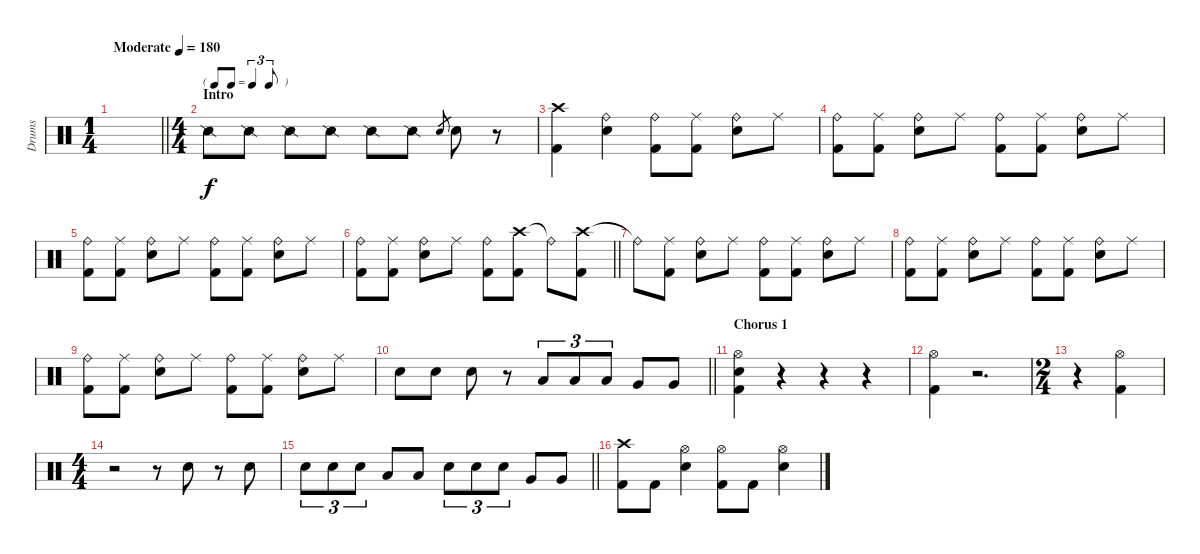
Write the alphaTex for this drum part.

\track ("Drums" "Drums") {instrument percussion}
\staff {score}
\articulation defaults
\ts (1 4)
\tempo (180 "Moderate")
\clef neutral
\barLineRight lightlight
\ks c
|
\ts (4 4)
\tf triplet8th
\section ("" "Intro")
"Snare (side stick) 2".8 "Snare (side stick) 2".8 "Snare (side stick) 2".8 "Snare (side stick) 2".8 "Snare (side stick) 2".8 "Snare (side stick) 2".8 "Snare (hit) 2".8{gr} "Snare (hit) 2".8 r.8 |
("Crash high (hit)" "Kick (hit) 2").4 ("Ride (bell)" "Snare (hit) 2").4 ("Ride (bell)" "Kick (hit) 2").8 ("Ride (middle)" "Kick (hit) 2").8 ("Ride (bell)" "Snare (hit) 2").8 "Ride (middle)".8 |
("Ride (bell)" "Kick (hit) 2").8 ("Ride (middle)" "Kick (hit) 2").8 ("Ride (bell)" "Snare (hit) 2").8 "Ride (middle)".8 ("Ride (bell)" "Kick (hit) 2").8 ("Ride (middle)" "Kick (hit) 2").8 ("Ride (bell)" "Snare (hit) 2").8 "Ride (middle)".8 |
("Ride (bell)" "Kick (hit) 2").8 ("Ride (middle)" "Kick (hit) 2").8 ("Ride (bell)" "Snare (hit) 2").8 "Ride (middle)".8 ("Ride (bell)" "Kick (hit) 2").8 ("Ride (middle)" "Kick (hit) 2").8 ("Ride (bell)" "Snare (hit) 2").8 "Ride (middle)".8 |
\barLineRight lightlight
("Ride (bell)" "Kick (hit) 2").8 ("Ride (middle)" "Kick (hit) 2").8 ("Ride (bell)" "Snare (hit) 2").8 "Ride (middle)".8 ("Ride (bell)" "Kick (hit) 2").8 ("Crash high (hit)" "Kick (hit) 2").8 "Ride (bell)"{t}.8 ("Crash high (hit)" "Kick (hit) 2").8 |
"Ride (bell)"{t}.8 ("Ride (middle)" "Kick (hit) 2").8 ("Ride (bell)" "Snare (hit) 2").8 "Ride (middle)".8 ("Ride (bell)" "Kick (hit) 2").8 ("Ride (middle)" "Kick (hit) 2").8 ("Ride (bell)" "Snare (hit) 2").8 "Ride (middle)".8 |
("Ride (bell)" "Kick (hit) 2").8 ("Ride (middle)" "Kick (hit) 2").8 ("Ride (bell)" "Snare (hit) 2").8 "Ride (middle)".8 ("Ride (bell)" "Kick (hit) 2").8 ("Ride (middle)" "Kick (hit) 2").8 ("Ride (bell)" "Snare (hit) 2").8 "Ride (middle)".8 |
("Ride (bell)" "Kick (hit) 2").8 ("Ride (middle)" "Kick (hit) 2").8 ("Ride (bell)" "Snare (hit) 2").8 "Ride (middle)".8 ("Ride (bell)" "Kick (hit) 2").8 ("Ride (middle)" "Kick (hit) 2").8 ("Ride (bell)" "Snare (hit) 2").8 "Ride (middle)".8 |
\barLineRight lightlight "Snare (hit) 2".8 "Snare (hit) 2".8 "Snare (hit) 2".8
r.8 "Low Tom (hit)".8{tu (3 2)} "Low Tom (hit)".8{tu (3 2)} "Low Tom (hit)".8{tu (3 2)} "Very Low Tom (hit)".8 "Very Low Tom (hit)".8 |
\section ("" "Chorus 1")
("Hi-Hat (open)" "Snare (hit) 2" "Kick (hit) 2").4 r.4 r.4 r.4 |
("Hi-Hat (open)" "Kick (hit) 2").4 r.2{d} |
\ts (2 4)
r.4 ("Hi-Hat (open)" "Kick (hit) 2").4 |
\ts (4 4)
r.2 r.8 "Snare (hit) 2".8 r.8 "Snare (hit) 2".8 |
\barLineRight lightlight "Snare (hit) 2".8{tu (3 2)} "Snare (hit) 2".8{tu (3 2)} "Snare (hit) 2".8{tu (3 2)} "Low Tom (hit)".8 "Low Tom (hit)".8 "Snare (hit) 2".8{tu (3 2)} "Snare (hit) 2".8{tu (3 2)} "Snare (hit) 2".8{tu (3 2)} "Very Low Tom (hit)".8 "Very Low Tom (hit)".8
|
("Crash high (hit)" "Kick (hit) 2").8 "Kick (hit) 2".8 ("Hi-Hat (open)" "Snare (hit) 2").4 ("Hi-Hat (open)" "Kick (hit) 2").8 "Kick (hit) 2".8 ("Hi-Hat (open)" "Snare (hit) 2").4
